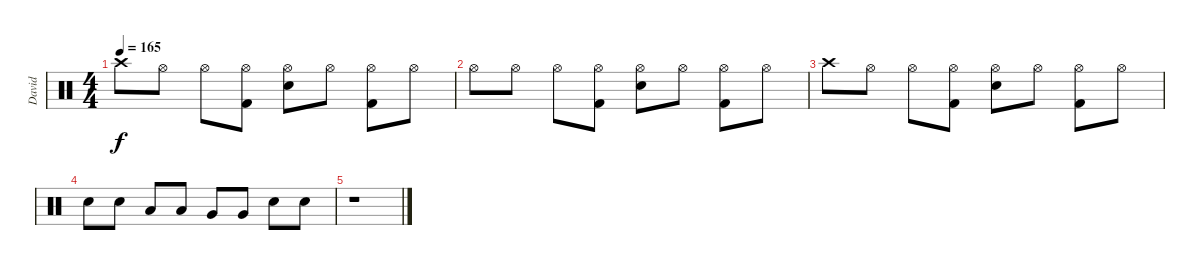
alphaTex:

\track ("David" "David") {instrument percussion}
\staff {score}
\articulation defaults
\ts (4 4)
\tempo 165
\clef neutral
\ks c "Crash high (hit)".8{dy f} "Hi-Hat (open)".8 "Hi-Hat (open)".8
("Hi-Hat (open)" "Kick (hit) 2").8 ("Electric Snare (hit)" "Hi-Hat (open)").8 "Hi-Hat (open)".8 ("Hi-Hat (open)" "Kick (hit) 2").8 "Hi-Hat (open)".8 |
"Hi-Hat (open)".8 "Hi-Hat (open)".8 "Hi-Hat (open)".8 ("Hi-Hat (open)" "Kick (hit) 2").8 ("Electric Snare (hit)" "Hi-Hat (open)").8 "Hi-Hat (open)".8 ("Hi-Hat (open)" "Kick (hit) 2").8 "Hi-Hat (open)".8 |
"Crash high (hit)".8 "Hi-Hat (open)".8 "Hi-Hat (open)".8 ("Hi-Hat (open)" "Kick (hit) 2").8 ("Electric Snare (hit)" "Hi-Hat (open)").8 "Hi-Hat (open)".8 ("Hi-Hat (open)" "Kick (hit) 2").8 "Hi-Hat (open)".8 |
"Electric Snare (hit)".8 "Electric Snare (hit)".8 "Low Tom (hit)".8 "Low Tom (hit)".8 "Very Low Tom (hit)".8 "Very Low Tom (hit)".8 "Electric Snare (hit)".8 "Electric Snare (hit)".8 |
r.1
